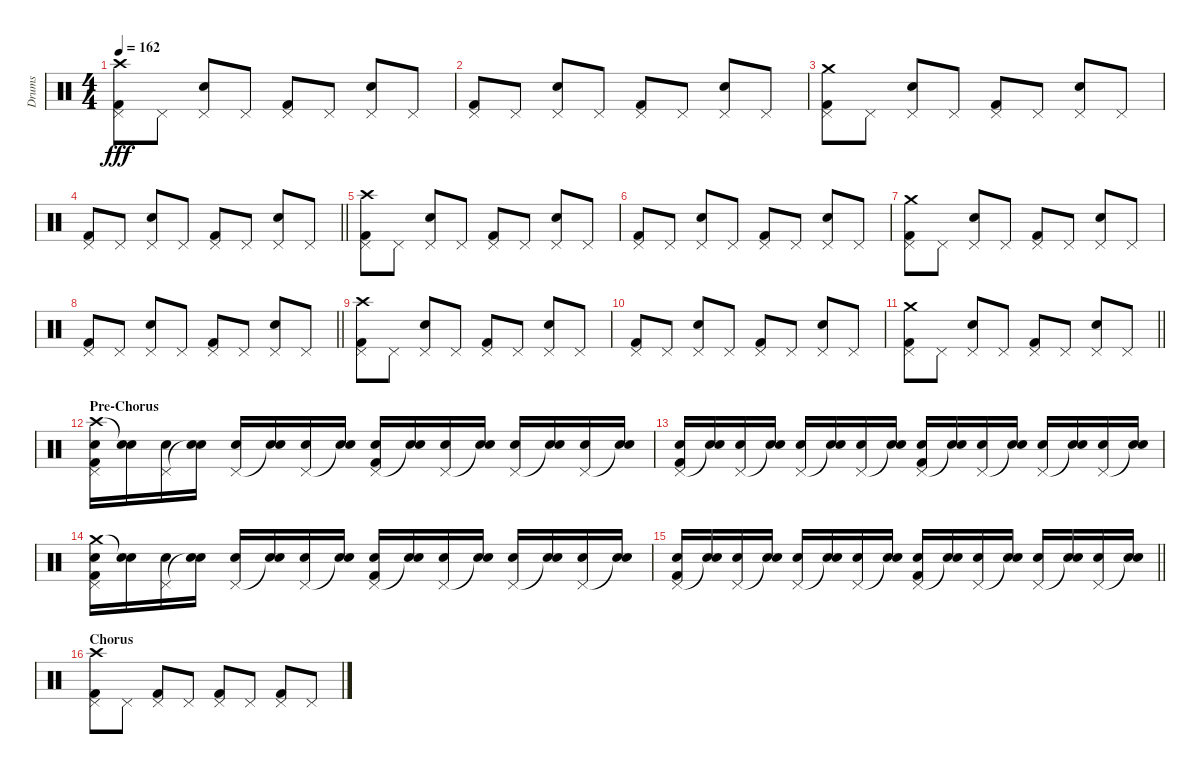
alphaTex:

\track ("Drums" "Drums") {instrument percussion}
\staff {score}
\articulation defaults
\ts (4 4)
\tempo 162
\clef neutral
\ks c
("Crash high (hit)" "Pedal Hi-Hat (hit)" "Kick (hit) 2").8{dy fff} "Pedal Hi-Hat (hit)".8 ("Pedal Hi-Hat (hit)" "Snare (hit) 2").8 "Pedal Hi-Hat (hit)".8 ("Pedal Hi-Hat (hit)" "Kick (hit) 2").8 "Pedal Hi-Hat (hit)".8 ("Pedal Hi-Hat (hit)" "Snare (hit) 2").8 "Pedal Hi-Hat (hit)".8 |
("Pedal Hi-Hat (hit)" "Kick (hit) 2").8 "Pedal Hi-Hat (hit)".8 ("Pedal Hi-Hat (hit)" "Snare (hit) 2").8 "Pedal Hi-Hat (hit)".8 ("Pedal Hi-Hat (hit)" "Kick (hit) 2").8 "Pedal Hi-Hat (hit)".8 ("Pedal Hi-Hat (hit)" "Snare (hit) 2").8 "Pedal Hi-Hat (hit)".8 |
("Crash medium (hit)" "Pedal Hi-Hat (hit)" "Kick (hit) 2").8 "Pedal Hi-Hat (hit)".8 ("Pedal Hi-Hat (hit)" "Snare (hit) 2").8 "Pedal Hi-Hat (hit)".8 ("Pedal Hi-Hat (hit)" "Kick (hit) 2").8 "Pedal Hi-Hat (hit)".8 ("Pedal Hi-Hat (hit)" "Snare (hit) 2").8 "Pedal Hi-Hat (hit)".8 |
\barLineRight lightlight
("Pedal Hi-Hat (hit)" "Kick (hit) 2").8 "Pedal Hi-Hat (hit)".8 ("Pedal Hi-Hat (hit)" "Snare (hit) 2").8 "Pedal Hi-Hat (hit)".8 ("Pedal Hi-Hat (hit)" "Kick (hit) 2").8 "Pedal Hi-Hat (hit)".8 ("Pedal Hi-Hat (hit)" "Snare (hit) 2").8 "Pedal Hi-Hat (hit)".8 |
("Crash high (hit)" "Pedal Hi-Hat (hit)" "Kick (hit) 2").8 "Pedal Hi-Hat (hit)".8 ("Pedal Hi-Hat (hit)" "Snare (hit) 2").8 "Pedal Hi-Hat (hit)".8 ("Pedal Hi-Hat (hit)" "Kick (hit) 2").8 "Pedal Hi-Hat (hit)".8 ("Pedal Hi-Hat (hit)" "Snare (hit) 2").8 "Pedal Hi-Hat (hit)".8 |
("Pedal Hi-Hat (hit)" "Kick (hit) 2").8 "Pedal Hi-Hat (hit)".8 ("Pedal Hi-Hat (hit)" "Snare (hit) 2").8 "Pedal Hi-Hat (hit)".8 ("Pedal Hi-Hat (hit)" "Kick (hit) 2").8 "Pedal Hi-Hat (hit)".8 ("Pedal Hi-Hat (hit)" "Snare (hit) 2").8 "Pedal Hi-Hat (hit)".8 |
("Crash medium (hit)" "Pedal Hi-Hat (hit)" "Kick (hit) 2").8 "Pedal Hi-Hat (hit)".8 ("Pedal Hi-Hat (hit)" "Snare (hit) 2").8 "Pedal Hi-Hat (hit)".8 ("Pedal Hi-Hat (hit)" "Kick (hit) 2").8 "Pedal Hi-Hat (hit)".8 ("Pedal Hi-Hat (hit)" "Snare (hit) 2").8 "Pedal Hi-Hat (hit)".8 |
\barLineRight lightlight
("Pedal Hi-Hat (hit)" "Kick (hit) 2").8 "Pedal Hi-Hat (hit)".8 ("Pedal Hi-Hat (hit)" "Snare (hit) 2").8 "Pedal Hi-Hat (hit)".8 ("Pedal Hi-Hat (hit)" "Kick (hit) 2").8 "Pedal Hi-Hat (hit)".8 ("Pedal Hi-Hat (hit)" "Snare (hit) 2").8 "Pedal Hi-Hat (hit)".8 |
("Crash high (hit)" "Pedal Hi-Hat (hit)" "Kick (hit) 2").8 "Pedal Hi-Hat (hit)".8 ("Pedal Hi-Hat (hit)" "Snare (hit) 2").8 "Pedal Hi-Hat (hit)".8 ("Pedal Hi-Hat (hit)" "Kick (hit) 2").8 "Pedal Hi-Hat (hit)".8 ("Pedal Hi-Hat (hit)" "Snare (hit) 2").8 "Pedal Hi-Hat (hit)".8 |
("Pedal Hi-Hat (hit)" "Kick (hit) 2").8 "Pedal Hi-Hat (hit)".8 ("Pedal Hi-Hat (hit)" "Snare (hit) 2").8 "Pedal Hi-Hat (hit)".8 ("Pedal Hi-Hat (hit)" "Kick (hit) 2").8 "Pedal Hi-Hat (hit)".8 ("Pedal Hi-Hat (hit)" "Snare (hit) 2").8 "Pedal Hi-Hat (hit)".8 |
\barLineRight lightlight
("Crash medium (hit)" "Pedal Hi-Hat (hit)" "Kick (hit) 2").8 "Pedal Hi-Hat (hit)".8 ("Pedal Hi-Hat (hit)" "Snare (hit) 2").8 "Pedal Hi-Hat (hit)".8 ("Pedal Hi-Hat (hit)" "Kick (hit) 2").8 "Pedal Hi-Hat (hit)".8 ("Pedal Hi-Hat (hit)" "Snare (hit) 2").8 "Pedal Hi-Hat (hit)".8 |
\section ("" "Pre-Chorus")
("Crash high (hit)" "Pedal Hi-Hat (hit)" "Snare (hit) 2" "Kick (hit) 2").16 ("Snare (hit)"{t} "Snare (hit) 2").16 ("Pedal Hi-Hat (hit)" "Snare (hit) 2").16 ("Snare (hit)"{t} "Snare (hit) 2").16 ("Pedal Hi-Hat (hit)" "Snare (hit) 2").16 ("Snare (hit)"{t} "Snare (hit) 2").16 ("Pedal Hi-Hat (hit)" "Snare (hit) 2").16 ("Snare (hit)"{t} "Snare (hit) 2").16 ("Pedal Hi-Hat (hit)" "Snare (hit) 2" "Kick (hit) 2").16 ("Snare (hit)"{t} "Snare (hit) 2").16 ("Pedal Hi-Hat (hit)" "Snare (hit) 2").16 ("Snare (hit)"{t} "Snare (hit) 2").16 ("Pedal Hi-Hat (hit)" "Snare (hit) 2").16 ("Snare (hit)"{t} "Snare (hit) 2").16 ("Pedal Hi-Hat (hit)" "Snare (hit) 2").16 ("Snare (hit)"{t} "Snare (hit) 2").16 |
("Pedal Hi-Hat (hit)" "Snare (hit) 2" "Kick (hit) 2").16 ("Snare (hit)"{t} "Snare (hit) 2").16 ("Pedal Hi-Hat (hit)" "Snare (hit) 2").16 ("Snare (hit)"{t} "Snare (hit) 2").16 ("Pedal Hi-Hat (hit)" "Snare (hit) 2").16 ("Snare (hit)"{t} "Snare (hit) 2").16 ("Pedal Hi-Hat (hit)" "Snare (hit) 2").16 ("Snare (hit)"{t} "Snare (hit) 2").16 ("Pedal Hi-Hat (hit)" "Snare (hit) 2" "Kick (hit) 2").16 ("Snare (hit)"{t} "Snare (hit) 2").16 ("Pedal Hi-Hat (hit)" "Snare (hit) 2").16 ("Snare (hit)"{t} "Snare (hit) 2").16 ("Pedal Hi-Hat (hit)" "Snare (hit) 2").16 ("Snare (hit)"{t} "Snare (hit) 2").16 ("Pedal Hi-Hat (hit)" "Snare (hit) 2").16 ("Snare (hit)"{t} "Snare (hit) 2").16 |
("Crash medium (hit)" "Pedal Hi-Hat (hit)" "Snare (hit) 2" "Kick (hit) 2").16 ("Snare (hit)"{t} "Snare (hit) 2").16 ("Pedal Hi-Hat (hit)" "Snare (hit) 2").16 ("Snare (hit)"{t} "Snare (hit) 2").16 ("Pedal Hi-Hat (hit)" "Snare (hit) 2").16 ("Snare (hit)"{t} "Snare (hit) 2").16 ("Pedal Hi-Hat (hit)" "Snare (hit) 2").16 ("Snare (hit)"{t} "Snare (hit) 2").16 ("Pedal Hi-Hat (hit)" "Snare (hit) 2" "Kick (hit) 2").16 ("Snare (hit)"{t} "Snare (hit) 2").16 ("Pedal Hi-Hat (hit)" "Snare (hit) 2").16 ("Snare (hit)"{t} "Snare (hit) 2").16 ("Pedal Hi-Hat (hit)" "Snare (hit) 2").16 ("Snare (hit)"{t} "Snare (hit) 2").16 ("Pedal Hi-Hat (hit)" "Snare (hit) 2").16 ("Snare (hit)"{t} "Snare (hit) 2").16 |
\barLineRight lightlight
("Pedal Hi-Hat (hit)" "Snare (hit) 2" "Kick (hit) 2").16 ("Snare (hit)"{t} "Snare (hit) 2").16 ("Pedal Hi-Hat (hit)" "Snare (hit) 2").16 ("Snare (hit)"{t} "Snare (hit) 2").16 ("Pedal Hi-Hat (hit)" "Snare (hit) 2").16 ("Snare (hit)"{t} "Snare (hit) 2").16 ("Pedal Hi-Hat (hit)" "Snare (hit) 2").16 ("Snare (hit)"{t} "Snare (hit) 2").16 ("Pedal Hi-Hat (hit)" "Snare (hit) 2" "Kick (hit) 2").16 ("Snare (hit)"{t} "Snare (hit) 2").16 ("Pedal Hi-Hat (hit)" "Snare (hit) 2").16 ("Snare (hit)"{t} "Snare (hit) 2").16 ("Pedal Hi-Hat (hit)" "Snare (hit) 2").16 ("Snare (hit)"{t} "Snare (hit) 2").16 ("Pedal Hi-Hat (hit)" "Snare (hit) 2").16 ("Snare (hit)"{t} "Snare (hit) 2").16 |
\section ("" "Chorus")
("Crash high (hit)" "Pedal Hi-Hat (hit)" "Kick (hit) 2").8 "Pedal Hi-Hat (hit)".8 ("Pedal Hi-Hat (hit)" "Kick (hit) 2").8 "Pedal Hi-Hat (hit)".8 ("Pedal Hi-Hat (hit)" "Kick (hit) 2").8 "Pedal Hi-Hat (hit)".8 ("Pedal Hi-Hat (hit)" "Kick (hit) 2").8 "Pedal Hi-Hat (hit)".8
